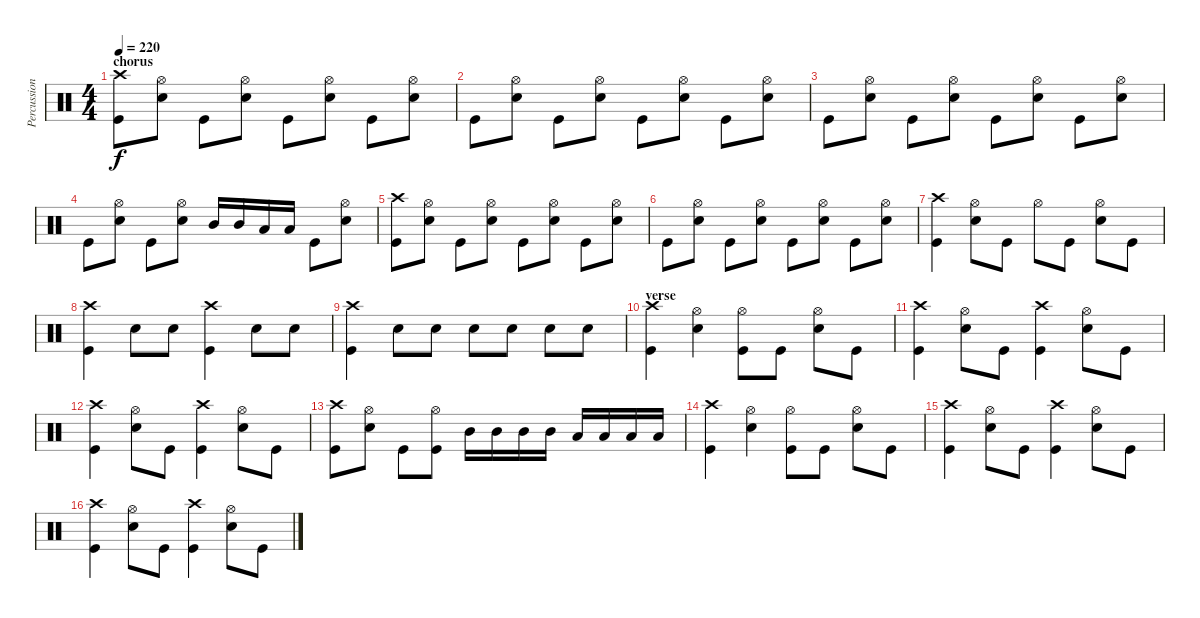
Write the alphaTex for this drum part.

\track ("Percussion" "Percussion") {instrument percussion}
\staff {score}
\articulation defaults
\ts (4 4)
\section ("" "chorus")
\tempo 220
\clef neutral
\ks c
("Kick (hit)" "Crash high (hit)").8{dy f} ("Electric Snare (hit)" "Hi-Hat (open)").8 "Kick (hit)".8 ("Electric Snare (hit)" "Hi-Hat (open)").8 "Kick (hit)".8 ("Electric Snare (hit)" "Hi-Hat (open)").8 "Kick (hit)".8 ("Electric Snare (hit)" "Hi-Hat (open)").8 |
"Kick (hit)".8 ("Electric Snare (hit)" "Hi-Hat (open)").8 "Kick (hit)".8 ("Electric Snare (hit)" "Hi-Hat (open)").8 "Kick (hit)".8 ("Electric Snare (hit)" "Hi-Hat (open)").8 "Kick (hit)".8 ("Electric Snare (hit)" "Hi-Hat (open)").8 |
"Kick (hit)".8 ("Electric Snare (hit)" "Hi-Hat (open)").8 "Kick (hit)".8 ("Electric Snare (hit)" "Hi-Hat (open)").8 "Kick (hit)".8 ("Electric Snare (hit)" "Hi-Hat (open)").8 "Kick (hit)".8 ("Electric Snare (hit)" "Hi-Hat (open)").8 |
"Kick (hit)".8 ("Electric Snare (hit)" "Hi-Hat (open)").8 "Kick (hit)".8 ("Electric Snare (hit)" "Hi-Hat (open)").8 "Mid Tom (hit)".16 "Mid Tom (hit)".16 "Low Tom (hit)".16 "Low Tom (hit)".16 "Kick (hit)".8 ("Electric Snare (hit)" "Hi-Hat (open)").8 |
("Kick (hit)" "Crash high (hit)").8 ("Electric Snare (hit)" "Hi-Hat (open)").8 "Kick (hit)".8 ("Electric Snare (hit)" "Hi-Hat (open)").8 "Kick (hit)".8 ("Electric Snare (hit)" "Hi-Hat (open)").8 "Kick (hit)".8 ("Electric Snare (hit)" "Hi-Hat (open)").8 |
"Kick (hit)".8 ("Electric Snare (hit)" "Hi-Hat (open)").8 "Kick (hit)".8 ("Electric Snare (hit)" "Hi-Hat (open)").8 "Kick (hit)".8 ("Electric Snare (hit)" "Hi-Hat (open)").8 "Kick (hit)".8 ("Electric Snare (hit)" "Hi-Hat (open)").8 |
("Kick (hit)" "Crash high (hit)").4 ("Electric Snare (hit)" "Hi-Hat (open)").8 "Kick (hit)".8 "Hi-Hat (open)".8 "Kick (hit)".8 ("Hi-Hat (open)" "Electric Snare (hit)").8 "Kick (hit)".8 |
("Crash high (hit)" "Kick (hit)").4 "Electric Snare (hit)".8 "Electric Snare (hit)".8 ("Kick (hit)" "Crash high (hit)").4 "Electric Snare (hit)".8 "Electric Snare (hit)".8 |
("Crash high (hit)" "Kick (hit)").4 "Electric Snare (hit)".8 "Electric Snare (hit)".8 "Electric Snare (hit)".8 "Electric Snare (hit)".8 "Electric Snare (hit)".8 "Electric Snare (hit)".8 |
\section ("" "verse")
("Crash high (hit)" "Kick (hit)").4 ("Hi-Hat (open)" "Electric Snare (hit)").4 ("Kick (hit)" "Hi-Hat (open)").8 "Kick (hit)".8 ("Electric Snare (hit)" "Hi-Hat (open)").8 "Kick (hit)".8 |
("Crash high (hit)" "Kick (hit)").4 ("Hi-Hat (open)" "Electric Snare (hit)").8 "Kick (hit)".8 ("Kick (hit)" "Crash high (hit)").4 ("Electric Snare (hit)" "Hi-Hat (open)").8 "Kick (hit)".8 |
("Crash high (hit)" "Kick (hit)").4 ("Hi-Hat (open)" "Electric Snare (hit)").8 "Kick (hit)".8 ("Kick (hit)" "Crash high (hit)").4 ("Electric Snare (hit)" "Hi-Hat (open)").8 "Kick (hit)".8 |
("Crash high (hit)" "Kick (hit)").8 ("Electric Snare (hit)" "Hi-Hat (open)").8 "Kick (hit)".8 ("Kick (hit)" "Hi-Hat (open)").8 "Mid Tom (hit)".16 "Mid Tom (hit)".16 "Mid Tom (hit)".16 "Mid Tom (hit)".16 "Low Tom (hit)".16 "Low Tom (hit)".16 "Low Tom (hit)".16 "Low Tom (hit)".16 |
("Crash high (hit)" "Kick (hit)").4 ("Hi-Hat (open)" "Electric Snare (hit)").4 ("Kick (hit)" "Hi-Hat (open)").8 "Kick (hit)".8 ("Electric Snare (hit)" "Hi-Hat (open)").8 "Kick (hit)".8 |
("Crash high (hit)" "Kick (hit)").4 ("Hi-Hat (open)" "Electric Snare (hit)").8 "Kick (hit)".8 ("Kick (hit)" "Crash high (hit)").4 ("Electric Snare (hit)" "Hi-Hat (open)").8 "Kick (hit)".8 |
("Crash high (hit)" "Kick (hit)").4 ("Hi-Hat (open)" "Electric Snare (hit)").8 "Kick (hit)".8 ("Kick (hit)" "Crash high (hit)").4 ("Electric Snare (hit)" "Hi-Hat (open)").8 "Kick (hit)".8
